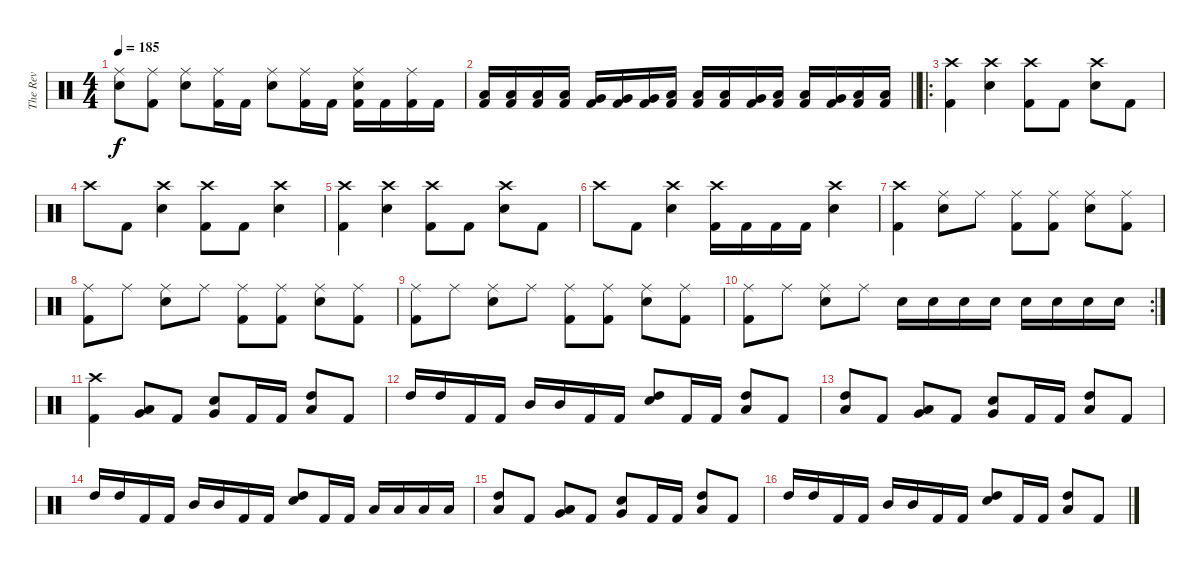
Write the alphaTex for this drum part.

\track ("The Rev" "The Rev") {instrument percussion}
\staff {score}
\articulation defaults
\ts (4 4)
\tempo 185
\clef neutral
\ks c
("Ride (middle)" "Electric Snare (hit)").8{dy f} ("Ride (middle)" "Kick (hit) 2").8 ("Ride (middle)" "Electric Snare (hit)").8 ("Ride (middle)" "Kick (hit) 2").16 "Kick (hit) 2".16 ("Ride (middle)" "Electric Snare (hit)").8 ("Ride (middle)" "Kick (hit) 2").16 "Kick (hit) 2".16 ("Ride (middle)" "Electric Snare (hit)" "Kick (hit) 2").16 "Kick (hit) 2".16 ("Ride (middle)" "Kick (hit) 2").16 "Kick (hit) 2".16 |
\barLineRight lightlight
("Low Tom (hit)" "Kick (hit) 2").16 ("Low Tom (hit)" "Kick (hit) 2").16 ("Low Tom (hit)" "Kick (hit) 2").16 ("Low Floor Tom (hit)" "Kick (hit) 2").16 ("Very Low Tom (hit)" "Kick (hit) 2").16 ("Very Low Tom (hit)" "Kick (hit) 2").16 ("Very Low Tom (hit)" "Kick (hit) 2").16 ("Low Tom (hit)" "Kick (hit) 2").16 ("Low Floor Tom (hit)" "Kick (hit) 2").16 ("Low Floor Tom (hit)" "Kick (hit) 2").16 ("Very Low Tom (hit)" "Kick (hit) 2").16 ("Low Tom (hit)" "Kick (hit) 2").16 ("Low Floor Tom (hit)" "Kick (hit) 2").16 ("Very Low Tom (hit)" "Kick (hit) 2").16 ("Low Tom (hit)" "Kick (hit) 2").16 ("Low Floor Tom (hit)" "Kick (hit) 2").16 |
\ro
("Crash high (hit)" "Kick (hit) 2").4 ("Crash high (hit)" "Electric Snare (hit)").4 ("Crash high (hit)" "Kick (hit) 2").8 "Kick (hit) 2".8 ("Crash high (hit)" "Electric Snare (hit)").8 "Kick (hit) 2".8 |
"Crash high (hit)".8 "Kick (hit) 2".8 ("Crash high (hit)" "Electric Snare (hit)").4 ("Crash high (hit)" "Kick (hit) 2").8 "Kick (hit) 2".8 ("Crash high (hit)" "Electric Snare (hit)").4 |
("Crash high (hit)" "Kick (hit) 2").4 ("Crash high (hit)" "Electric Snare (hit)").4 ("Crash high (hit)" "Kick (hit) 2").8 "Kick (hit) 2".8 ("Crash high (hit)" "Electric Snare (hit)").8 "Kick (hit) 2".8 |
"Crash high (hit)".8 "Kick (hit) 2".8 ("Crash high (hit)" "Electric Snare (hit)").4 ("Crash high (hit)" "Kick (hit) 2").16 "Kick (hit) 2".16 "Kick (hit) 2".16 "Kick (hit) 2".16 ("Crash high (hit)" "Electric Snare (hit)").4 |
("Crash high (hit)" "Kick (hit) 2").4 ("Ride (middle)" "Electric Snare (hit)").8 "Ride (middle)".8 ("Ride (middle)" "Kick (hit) 2").8 ("Ride (middle)" "Kick (hit) 2").8 ("Ride (middle)" "Electric Snare (hit)").8 ("Ride (middle)" "Kick (hit) 2").8 |
("Ride (middle)" "Kick (hit) 2").8 "Ride (middle)".8 ("Ride (middle)" "Electric Snare (hit)").8 "Ride (middle)".8 ("Ride (middle)" "Kick (hit) 2").8 ("Ride (middle)" "Kick (hit) 2").8 ("Ride (middle)" "Electric Snare (hit)").8 ("Ride (middle)" "Kick (hit) 2").8 |
("Ride (middle)" "Kick (hit) 2").8 "Ride (middle)".8 ("Ride (middle)" "Electric Snare (hit)").8 "Ride (middle)".8 ("Ride (middle)" "Kick (hit) 2").8 ("Ride (middle)" "Kick (hit) 2").8 ("Ride (middle)" "Electric Snare (hit)").8 ("Ride (middle)" "Kick (hit) 2").8 |
\rc 2
("Ride (middle)" "Kick (hit) 2").8 "Ride (middle)".8 ("Ride (middle)" "Electric Snare (hit)").8 "Ride (middle)".8 "Electric Snare (hit)".16 "Electric Snare (hit)".16 "Electric Snare (hit)".16 "Electric Snare (hit)".16 "Electric Snare (hit)".16 "Electric Snare (hit)".16 "Electric Snare (hit)".16 "Electric Snare (hit)".16 |
("Crash high (hit)" "Kick (hit) 2").4 ("Low Tom (hit)" "Very Low Tom (hit)").8 "Kick (hit) 2".8 ("Very Low Tom (hit)" "Electric Snare (hit)").8 "Kick (hit) 2".16 "Kick (hit) 2".16 ("High Tom (hit)" "Low Tom (hit)").8 "Kick (hit) 2".8 |
"High Tom (hit)".16 "High Tom (hit)".16 "Kick (hit) 2".16 "Kick (hit) 2".16 "Mid Tom (hit)".16 "Mid Tom (hit)".16 "Kick (hit) 2".16 "Kick (hit) 2".16 ("High Tom (hit)" "Electric Snare (hit)").8 "Kick (hit) 2".16 "Kick (hit) 2".16 ("High Tom (hit)" "Low Tom (hit)").8 "Kick (hit) 2".8 |
("High Tom (hit)" "Low Tom (hit)").8 "Kick (hit) 2".8 ("Low Tom (hit)" "Very Low Tom (hit)").8 "Kick (hit) 2".8 ("Very Low Tom (hit)" "Electric Snare (hit)").8 "Kick (hit) 2".16 "Kick (hit) 2".16 ("High Tom (hit)" "Low Tom (hit)").8 "Kick (hit) 2".8 |
"High Tom (hit)".16 "High Tom (hit)".16 "Kick (hit) 2".16 "Kick (hit) 2".16 "Mid Tom (hit)".16 "Mid Tom (hit)".16 "Kick (hit) 2".16 "Kick (hit) 2".16 ("High Tom (hit)" "Electric Snare (hit)").8 "Kick (hit) 2".16 "Kick (hit) 2".16 "Low Tom (hit)".16 "Low Tom (hit)".16 "Low Tom (hit)".16 "Low Tom (hit)".16 |
("High Tom (hit)" "Low Tom (hit)").8 "Kick (hit) 2".8 ("Low Tom (hit)" "Very Low Tom (hit)").8 "Kick (hit) 2".8 ("Very Low Tom (hit)" "Electric Snare (hit)").8 "Kick (hit) 2".16 "Kick (hit) 2".16 ("High Tom (hit)" "Low Tom (hit)").8 "Kick (hit) 2".8 |
"High Tom (hit)".16 "High Tom (hit)".16 "Kick (hit) 2".16 "Kick (hit) 2".16 "Mid Tom (hit)".16 "Mid Tom (hit)".16 "Kick (hit) 2".16 "Kick (hit) 2".16 ("High Tom (hit)" "Electric Snare (hit)").8 "Kick (hit) 2".16 "Kick (hit) 2".16 ("High Tom (hit)" "Low Tom (hit)").8 "Kick (hit) 2".8
